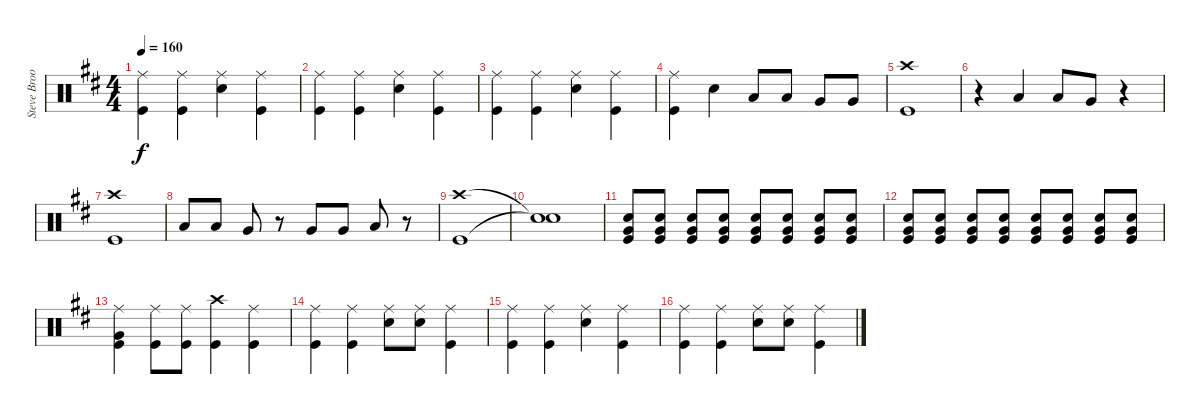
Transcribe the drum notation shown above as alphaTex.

\track ("Steve Brookins Drums" "Steve Broo") {instrument percussion}
\staff {score}
\articulation defaults
\ts (4 4)
\tempo 160
\clef neutral
\ks d
("Ride (middle)" "Kick (hit)").4{dy f} ("Ride (middle)" "Kick (hit)").4 ("Ride (middle)" "Snare (hit) 2").4 ("Ride (middle)" "Kick (hit)").4 |
("Ride (middle)" "Kick (hit)").4 ("Ride (middle)" "Kick (hit)").4 ("Ride (middle)" "Snare (hit) 2").4 ("Ride (middle)" "Kick (hit)").4 |
("Ride (middle)" "Kick (hit)").4 ("Ride (middle)" "Kick (hit)").4 ("Ride (middle)" "Snare (hit) 2").4 ("Ride (middle)" "Kick (hit)").4 |
("Ride (middle)" "Kick (hit)").4 "Snare (hit) 2".4 "Low Tom (hit)".8 "Low Tom (hit)".8 "Very Low Tom (hit)".8 "Very Low Tom (hit)".8 |
("Crash high (hit)" "Kick (hit)").1 |
r.4 "Low Tom (hit)".4 "Low Tom (hit)".8 "Very Low Tom (hit)".8 r.4 |
("Crash high (hit)" "Kick (hit)").1 |
"Low Tom (hit)".8 "Low Tom (hit)".8 "Very Low Tom (hit)".8 r.8 "Very Low Tom (hit)".8 "Very Low Tom (hit)".8 "Low Floor Tom (hit)".8 r.8 |
("Crash high (hit)" "Kick (hit)").1 |
("Snare (hit)"{t} "Snare (hit)"{t}).1 |
("Snare (hit) 2" "Very Low Tom (hit)" "Kick (hit)").8 ("Snare (hit) 2" "Very Low Tom (hit)" "Kick (hit)").8 ("Snare (hit) 2" "Very Low Tom (hit)" "Kick (hit)").8 ("Snare (hit) 2" "Very Low Tom (hit)" "Kick (hit)").8 ("Snare (hit) 2" "Very Low Tom (hit)" "Kick (hit)").8 ("Snare (hit) 2" "Very Low Tom (hit)" "Kick (hit)").8 ("Snare (hit) 2" "Very Low Tom (hit)" "Kick (hit)").8 ("Snare (hit) 2" "Very Low Tom (hit)" "Kick (hit)").8 |
("Snare (hit) 2" "Very Low Tom (hit)" "Kick (hit)").8 ("Snare (hit) 2" "Very Low Tom (hit)" "Kick (hit)").8 ("Snare (hit) 2" "Very Low Tom (hit)" "Kick (hit)").8 ("Snare (hit) 2" "Very Low Tom (hit)" "Kick (hit)").8 ("Snare (hit) 2" "Very Low Tom (hit)" "Kick (hit)").8 ("Snare (hit) 2" "Very Low Tom (hit)" "Kick (hit)").8 ("Snare (hit) 2" "Very Low Tom (hit)" "Kick (hit)").8 ("Snare (hit) 2" "Very Low Tom (hit)" "Kick (hit)").8 |
("Ride (middle)" "Very Low Tom (hit)" "Kick (hit)").4{volume 13} ("Ride (middle)" "Kick (hit)").8 ("Ride (middle)" "Kick (hit)").8 ("Crash high (hit)" "Kick (hit)").4 ("Ride (middle)" "Kick (hit)").4 |
("Ride (middle)" "Kick (hit)").4 ("Ride (middle)" "Kick (hit)").4 ("Ride (middle)" "Snare (hit) 2").8 ("Ride (middle)" "Snare (hit) 2").8 ("Ride (middle)" "Kick (hit)").4 |
("Ride (middle)" "Kick (hit)").4 ("Ride (middle)" "Kick (hit)").4 ("Ride (middle)" "Snare (hit) 2").4 ("Ride (middle)" "Kick (hit)").4 |
("Ride (middle)" "Kick (hit)").4 ("Ride (middle)" "Kick (hit)").4 ("Ride (middle)" "Snare (hit) 2").8 ("Ride (middle)" "Snare (hit) 2").8 ("Ride (middle)" "Kick (hit)").4
